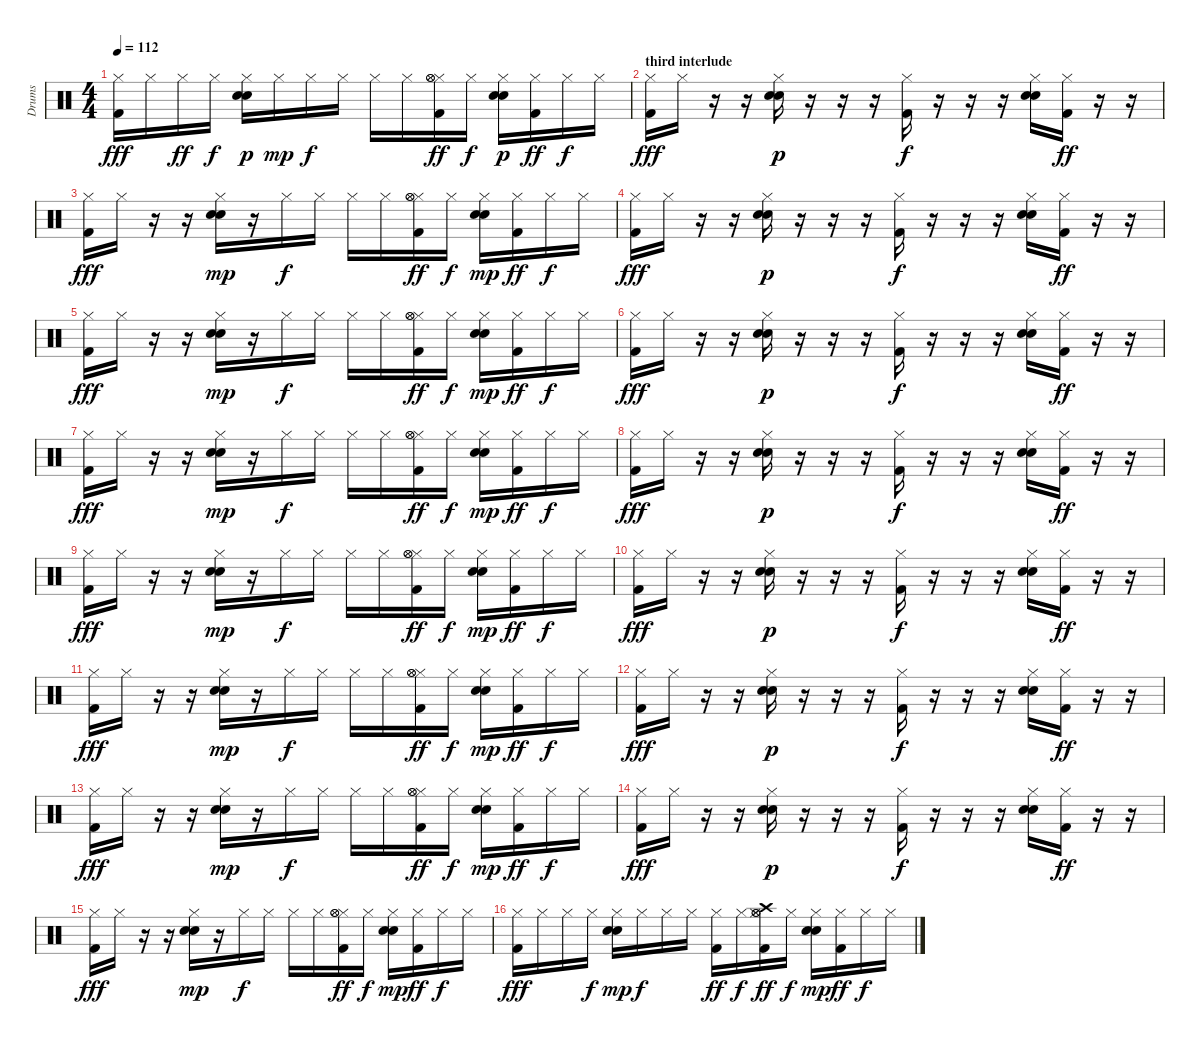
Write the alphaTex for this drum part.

\track ("Drums" "Drums") {instrument percussion}
\staff {score}
\articulation defaults
\ts (4 4)
\tempo 112
\clef neutral
\ks c
("Kick (hit) 2" "Hi-Hat (closed)").16{dy fff} "Hi-Hat (closed)".16 "Hi-Hat (closed)".16{dy ff} "Hi-Hat (closed)".16{dy f} ("Snare (hit) 2" "Hi-Hat (closed)" "Hand Clap (hit)").16{dy p} "Hi-Hat (closed)".16{dy mp} "Hi-Hat (closed)".16{dy f} "Hi-Hat (closed)".16 "Hi-Hat (closed)".16 "Hi-Hat (closed)".16 ("Kick (hit) 2" "Hi-Hat (closed)" "Hi-Hat (open)" "Hi-Hat (open)").16{dy ff} "Hi-Hat (closed)".16{dy f} ("Snare (hit) 2" "Hi-Hat (closed)" "Hand Clap (hit)").16{dy p} ("Kick (hit) 2" "Hi-Hat (closed)").16{dy ff} "Hi-Hat (closed)".16{dy f} "Hi-Hat (closed)".16 |
\section ("" "third interlude")
("Kick (hit) 2" "Hi-Hat (closed)").16{dy fff} "Hi-Hat (closed)".16 r.16 r.16 ("Snare (hit) 2" "Hi-Hat (closed)" "Hand Clap (hit)").16{dy p} r.16 r.16 r.16 ("Kick (hit) 2" "Hi-Hat (closed)").16{dy f} r.16 r.16 r.16 ("Snare (hit) 2" "Hi-Hat (closed)" "Hand Clap (hit)").16 ("Kick (hit) 2" "Hi-Hat (closed)").16{dy ff} r.16 r.16 |
("Kick (hit) 2" "Hi-Hat (closed)").16{dy fff} "Hi-Hat (closed)".16 r.16 r.16 ("Snare (hit) 2" "Hi-Hat (closed)" "Hand Clap (hit)").16{dy mp} r.16 "Hi-Hat (closed)".16{dy f} "Hi-Hat (closed)".16 "Hi-Hat (closed)".16 "Hi-Hat (closed)".16 ("Kick (hit) 2" "Hi-Hat (closed)" "Hi-Hat (open)" "Hi-Hat (open)").16{dy ff} "Hi-Hat (closed)".16{dy f} ("Snare (hit) 2" "Hi-Hat (closed)" "Hand Clap (hit)").16{dy mp} ("Kick (hit) 2" "Hi-Hat (closed)").16{dy ff} "Hi-Hat (closed)".16{dy f} "Hi-Hat (closed)".16 |
("Kick (hit) 2" "Hi-Hat (closed)").16{dy fff} "Hi-Hat (closed)".16 r.16 r.16 ("Snare (hit) 2" "Hi-Hat (closed)" "Hand Clap (hit)").16{dy p} r.16 r.16 r.16 ("Kick (hit) 2" "Hi-Hat (closed)").16{dy f} r.16 r.16 r.16 ("Snare (hit) 2" "Hi-Hat (closed)" "Hand Clap (hit)").16 ("Kick (hit) 2" "Hi-Hat (closed)").16{dy ff} r.16 r.16 |
("Kick (hit) 2" "Hi-Hat (closed)").16{dy fff} "Hi-Hat (closed)".16 r.16 r.16 ("Snare (hit) 2" "Hi-Hat (closed)" "Hand Clap (hit)").16{dy mp} r.16 "Hi-Hat (closed)".16{dy f} "Hi-Hat (closed)".16 "Hi-Hat (closed)".16 "Hi-Hat (closed)".16 ("Kick (hit) 2" "Hi-Hat (closed)" "Hi-Hat (open)" "Hi-Hat (open)").16{dy ff} "Hi-Hat (closed)".16{dy f} ("Snare (hit) 2" "Hi-Hat (closed)" "Hand Clap (hit)").16{dy mp} ("Kick (hit) 2" "Hi-Hat (closed)").16{dy ff} "Hi-Hat (closed)".16{dy f} "Hi-Hat (closed)".16 |
("Kick (hit) 2" "Hi-Hat (closed)").16{dy fff} "Hi-Hat (closed)".16 r.16 r.16 ("Snare (hit) 2" "Hi-Hat (closed)" "Hand Clap (hit)").16{dy p} r.16 r.16 r.16 ("Kick (hit) 2" "Hi-Hat (closed)").16{dy f} r.16 r.16 r.16 ("Snare (hit) 2" "Hi-Hat (closed)" "Hand Clap (hit)").16 ("Kick (hit) 2" "Hi-Hat (closed)").16{dy ff} r.16 r.16 |
("Kick (hit) 2" "Hi-Hat (closed)").16{dy fff} "Hi-Hat (closed)".16 r.16 r.16 ("Snare (hit) 2" "Hi-Hat (closed)" "Hand Clap (hit)").16{dy mp} r.16 "Hi-Hat (closed)".16{dy f} "Hi-Hat (closed)".16 "Hi-Hat (closed)".16 "Hi-Hat (closed)".16 ("Kick (hit) 2" "Hi-Hat (closed)" "Hi-Hat (open)" "Hi-Hat (open)").16{dy ff} "Hi-Hat (closed)".16{dy f} ("Snare (hit) 2" "Hi-Hat (closed)" "Hand Clap (hit)").16{dy mp} ("Kick (hit) 2" "Hi-Hat (closed)").16{dy ff} "Hi-Hat (closed)".16{dy f} "Hi-Hat (closed)".16 |
("Kick (hit) 2" "Hi-Hat (closed)").16{dy fff} "Hi-Hat (closed)".16 r.16 r.16 ("Snare (hit) 2" "Hi-Hat (closed)" "Hand Clap (hit)").16{dy p} r.16 r.16 r.16 ("Kick (hit) 2" "Hi-Hat (closed)").16{dy f} r.16 r.16 r.16 ("Snare (hit) 2" "Hi-Hat (closed)" "Hand Clap (hit)").16 ("Kick (hit) 2" "Hi-Hat (closed)").16{dy ff} r.16 r.16 |
("Kick (hit) 2" "Hi-Hat (closed)").16{dy fff} "Hi-Hat (closed)".16 r.16 r.16 ("Snare (hit) 2" "Hi-Hat (closed)" "Hand Clap (hit)").16{dy mp} r.16 "Hi-Hat (closed)".16{dy f} "Hi-Hat (closed)".16 "Hi-Hat (closed)".16 "Hi-Hat (closed)".16 ("Kick (hit) 2" "Hi-Hat (closed)" "Hi-Hat (open)" "Hi-Hat (open)").16{dy ff} "Hi-Hat (closed)".16{dy f} ("Snare (hit) 2" "Hi-Hat (closed)" "Hand Clap (hit)").16{dy mp} ("Kick (hit) 2" "Hi-Hat (closed)").16{dy ff} "Hi-Hat (closed)".16{dy f} "Hi-Hat (closed)".16 |
("Kick (hit) 2" "Hi-Hat (closed)").16{dy fff} "Hi-Hat (closed)".16 r.16 r.16 ("Snare (hit) 2" "Hi-Hat (closed)" "Hand Clap (hit)").16{dy p} r.16 r.16 r.16 ("Kick (hit) 2" "Hi-Hat (closed)").16{dy f} r.16 r.16 r.16 ("Snare (hit) 2" "Hi-Hat (closed)" "Hand Clap (hit)").16 ("Kick (hit) 2" "Hi-Hat (closed)").16{dy ff} r.16 r.16 |
("Kick (hit) 2" "Hi-Hat (closed)").16{dy fff} "Hi-Hat (closed)".16 r.16 r.16 ("Snare (hit) 2" "Hi-Hat (closed)" "Hand Clap (hit)").16{dy mp} r.16 "Hi-Hat (closed)".16{dy f} "Hi-Hat (closed)".16 "Hi-Hat (closed)".16 "Hi-Hat (closed)".16 ("Kick (hit) 2" "Hi-Hat (closed)" "Hi-Hat (open)" "Hi-Hat (open)").16{dy ff} "Hi-Hat (closed)".16{dy f} ("Snare (hit) 2" "Hi-Hat (closed)" "Hand Clap (hit)").16{dy mp} ("Kick (hit) 2" "Hi-Hat (closed)").16{dy ff} "Hi-Hat (closed)".16{dy f} "Hi-Hat (closed)".16 |
("Kick (hit) 2" "Hi-Hat (closed)").16{dy fff} "Hi-Hat (closed)".16 r.16 r.16 ("Snare (hit) 2" "Hi-Hat (closed)" "Hand Clap (hit)").16{dy p} r.16 r.16 r.16 ("Kick (hit) 2" "Hi-Hat (closed)").16{dy f} r.16 r.16 r.16 ("Snare (hit) 2" "Hi-Hat (closed)" "Hand Clap (hit)").16 ("Kick (hit) 2" "Hi-Hat (closed)").16{dy ff} r.16 r.16 |
("Kick (hit) 2" "Hi-Hat (closed)").16{dy fff} "Hi-Hat (closed)".16 r.16 r.16 ("Snare (hit) 2" "Hi-Hat (closed)" "Hand Clap (hit)").16{dy mp} r.16 "Hi-Hat (closed)".16{dy f} "Hi-Hat (closed)".16 "Hi-Hat (closed)".16 "Hi-Hat (closed)".16 ("Kick (hit) 2" "Hi-Hat (closed)" "Hi-Hat (open)" "Hi-Hat (open)").16{dy ff} "Hi-Hat (closed)".16{dy f} ("Snare (hit) 2" "Hi-Hat (closed)" "Hand Clap (hit)").16{dy mp} ("Kick (hit) 2" "Hi-Hat (closed)").16{dy ff} "Hi-Hat (closed)".16{dy f} "Hi-Hat (closed)".16 |
("Kick (hit) 2" "Hi-Hat (closed)").16{dy fff} "Hi-Hat (closed)".16 r.16 r.16 ("Snare (hit) 2" "Hi-Hat (closed)" "Hand Clap (hit)").16{dy p} r.16 r.16 r.16 ("Kick (hit) 2" "Hi-Hat (closed)").16{dy f} r.16 r.16 r.16 ("Snare (hit) 2" "Hi-Hat (closed)" "Hand Clap (hit)").16 ("Kick (hit) 2" "Hi-Hat (closed)").16{dy ff} r.16 r.16 |
("Kick (hit) 2" "Hi-Hat (closed)").16{dy fff} "Hi-Hat (closed)".16 r.16 r.16 ("Snare (hit) 2" "Hi-Hat (closed)" "Hand Clap (hit)").16{dy mp} r.16 "Hi-Hat (closed)".16{dy f} "Hi-Hat (closed)".16 "Hi-Hat (closed)".16 "Hi-Hat (closed)".16 ("Kick (hit) 2" "Hi-Hat (closed)" "Hi-Hat (open)" "Hi-Hat (open)").16{dy ff} "Hi-Hat (closed)".16{dy f} ("Snare (hit) 2" "Hi-Hat (closed)" "Hand Clap (hit)").16{dy mp} ("Kick (hit) 2" "Hi-Hat (closed)").16{dy ff} "Hi-Hat (closed)".16{dy f} "Hi-Hat (closed)".16 |
("Kick (hit) 2" "Hi-Hat (closed)").16{dy fff} "Hi-Hat (closed)".16 "Hi-Hat (closed)".16 "Hi-Hat (closed)".16{dy f} ("Snare (hit) 2" "Hi-Hat (closed)" "Hand Clap (hit)").16{dy mp} "Hi-Hat (closed)".16{dy f} "Hi-Hat (closed)".16 "Hi-Hat (closed)".16 ("Kick (hit) 2" "Hi-Hat (closed)").16{dy ff} "Hi-Hat (closed)".16{dy f} ("Kick (hit) 2" "Crash high (hit)" "Hi-Hat (closed)" "Hi-Hat (open)" "Hi-Hat (open)").16{dy ff} "Hi-Hat (closed)".16{dy f} ("Snare (hit) 2" "Hi-Hat (closed)" "Hand Clap (hit)").16{dy mp} ("Kick (hit) 2" "Hi-Hat (closed)").16{dy ff} "Hi-Hat (closed)".16{dy f} "Hi-Hat (closed)".16
